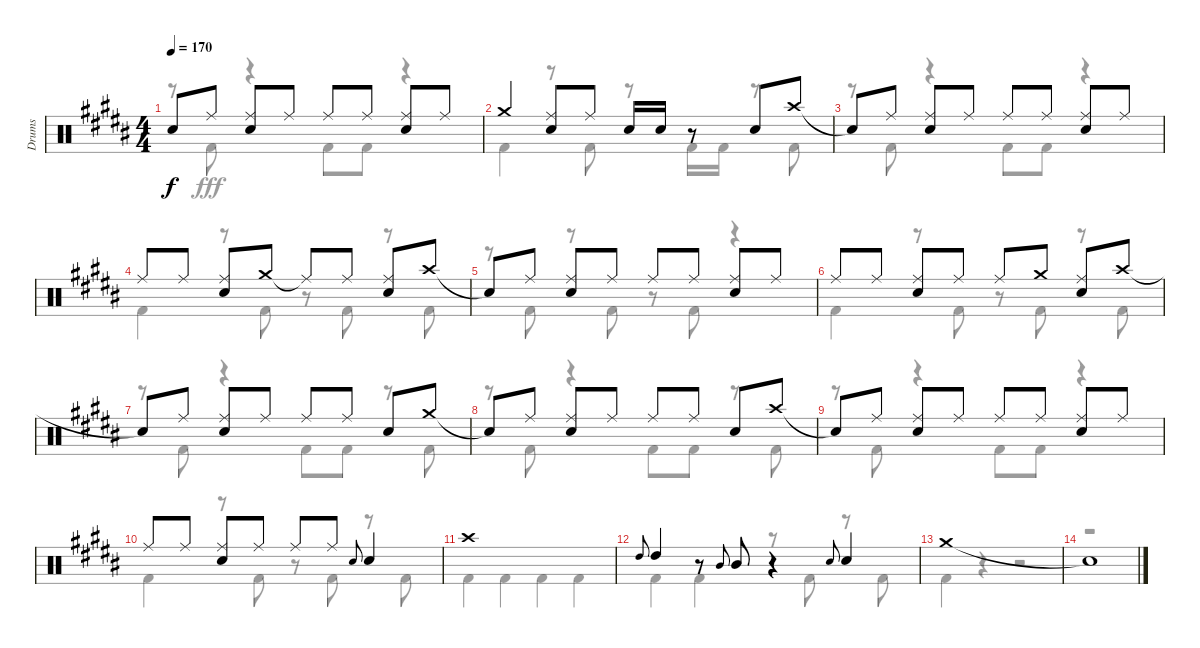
\track ("Drums" "Drums") {instrument percussion}
\staff {score}
\articulation defaults
\voice
\ts (4 4)
\tempo 170
\clef neutral
\ks b "Snare (hit)"{t}.8{dy f} "Ride (middle)".8
("Ride (middle)" "Snare (hit) 2").8 "Ride (middle)".8 "Ride (middle)".8 "Ride (middle)".8 ("Ride (middle)" "Snare (hit) 2").8 "Ride (middle)".8 |
"Crash medium (hit)".4 ("Ride (middle)" "Snare (hit) 2").8 "Ride (middle)".8 "Snare (hit) 2".16 "Snare (hit) 2".16 r.8 "Snare (hit) 2".8 "Crash high (hit)".8 |
"Snare (hit)"{t}.8 "Ride (middle)".8 ("Ride (middle)" "Snare (hit) 2").8 "Ride (middle)".8 "Ride (middle)".8 "Ride (middle)".8 ("Ride (middle)" "Snare (hit) 2").8 "Ride (middle)".8 |
"Ride (middle)".8 "Ride (middle)".8 ("Ride (middle)" "Snare (hit) 2").8 "Crash medium (hit)".8 "Ride (middle)"{t}.8 "Ride (middle)".8 ("Ride (middle)" "Snare (hit) 2").8 "Crash high (hit)".8 |
"Snare (hit)"{t}.8 "Ride (middle)".8 ("Ride (middle)" "Snare (hit) 2").8 "Ride (middle)".8 "Ride (middle)".8 "Ride (middle)".8 ("Ride (middle)" "Snare (hit) 2").8 "Ride (middle)".8 |
"Ride (middle)".8 "Ride (middle)".8 ("Ride (middle)" "Snare (hit) 2").8 "Ride (middle)".8 "Ride (middle)".8 "Crash medium (hit)".8 ("Ride (middle)" "Snare (hit) 2").8 "Crash high (hit)".8 |
"Snare (hit)"{t}.8 "Ride (middle)".8 ("Ride (middle)" "Snare (hit) 2").8 "Ride (middle)".8 "Ride (middle)".8 "Ride (middle)".8 "Snare (hit) 2".8 "Crash medium (hit)".8 |
"Snare (hit)"{t}.8 "Ride (middle)".8 ("Ride (middle)" "Snare (hit) 2").8 "Ride (middle)".8 "Ride (middle)".8 "Ride (middle)".8 "Snare (hit) 2".8 "Crash high (hit)".8 |
"Snare (hit)"{t}.8 "Ride (middle)".8 ("Ride (middle)" "Snare (hit) 2").8 "Ride (middle)".8 "Ride (middle)".8 "Ride (middle)".8 ("Ride (middle)" "Snare (hit) 2").8 "Ride (middle)".8 |
"Ride (middle)".8 "Ride (middle)".8 ("Ride (middle)" "Snare (hit) 2").8 "Ride (middle)".8 "Ride (middle)".8 "Ride (middle)".8 "Snare (hit) 2".8{gr onbeat} "Snare (hit) 2".4 |
"Crash high (hit)".1 |
"High Tom (hit)".8{gr onbeat} "High Tom (hit)".4 r.8 "Mid Tom (hit)".8{gr onbeat} "Mid Tom (hit)".8 r.4 "Snare (hit) 2".8{gr onbeat} "Snare (hit) 2".4 |
"Crash medium (hit)".1 |
"Snare (hit)"{t}.1
\voice
\clef neutral
\ottava regular
\simile none
\ks b
r.8{dy fff} "Kick (hit) 2".8 r.4 "Kick (hit) 2".8 "Kick (hit) 2".8 r.4 |
"Kick (hit) 2".4 r.8 "Kick (hit) 2".8 r.8 "Kick (hit) 2".16 "Kick (hit) 2".16 r.8 "Kick (hit) 2".8 |
r.8 "Kick (hit) 2".8 r.4 "Kick (hit) 2".8 "Kick (hit) 2".8 r.4 |
"Kick (hit) 2".4 r.8 "Kick (hit) 2".8 r.8 "Kick (hit) 2".8 r.8 "Kick (hit) 2".8 |
r.8 "Kick (hit) 2".8 r.8 "Kick (hit) 2".8 r.8 "Kick (hit) 2".8 r.4 |
"Kick (hit) 2".4 r.8 "Kick (hit) 2".8 r.8 "Kick (hit) 2".8 r.8 "Kick (hit) 2".8 |
r.8 "Kick (hit) 2".8 r.4 "Kick (hit) 2".8 "Kick (hit) 2".8 r.8 "Kick (hit) 2".8 |
r.8 "Kick (hit) 2".8 r.4 "Kick (hit) 2".8 "Kick (hit) 2".8 r.8 "Kick (hit) 2".8 |
r.8 "Kick (hit) 2".8 r.4 "Kick (hit) 2".8 "Kick (hit) 2".8 r.4 |
"Kick (hit) 2".4 r.8 "Kick (hit) 2".8 r.8 "Kick (hit) 2".8 r.8 "Kick (hit) 2".8 |
"Kick (hit) 2".4 "Kick (hit) 2".4 "Kick (hit) 2".4 "Kick (hit) 2".4 |
"Kick (hit) 2".4 "Kick (hit) 2".4 r.8 "Kick (hit) 2".8 r.8 "Kick (hit) 2".8 |
"Kick (hit) 2".4 r.4 r.2 |
r.1
